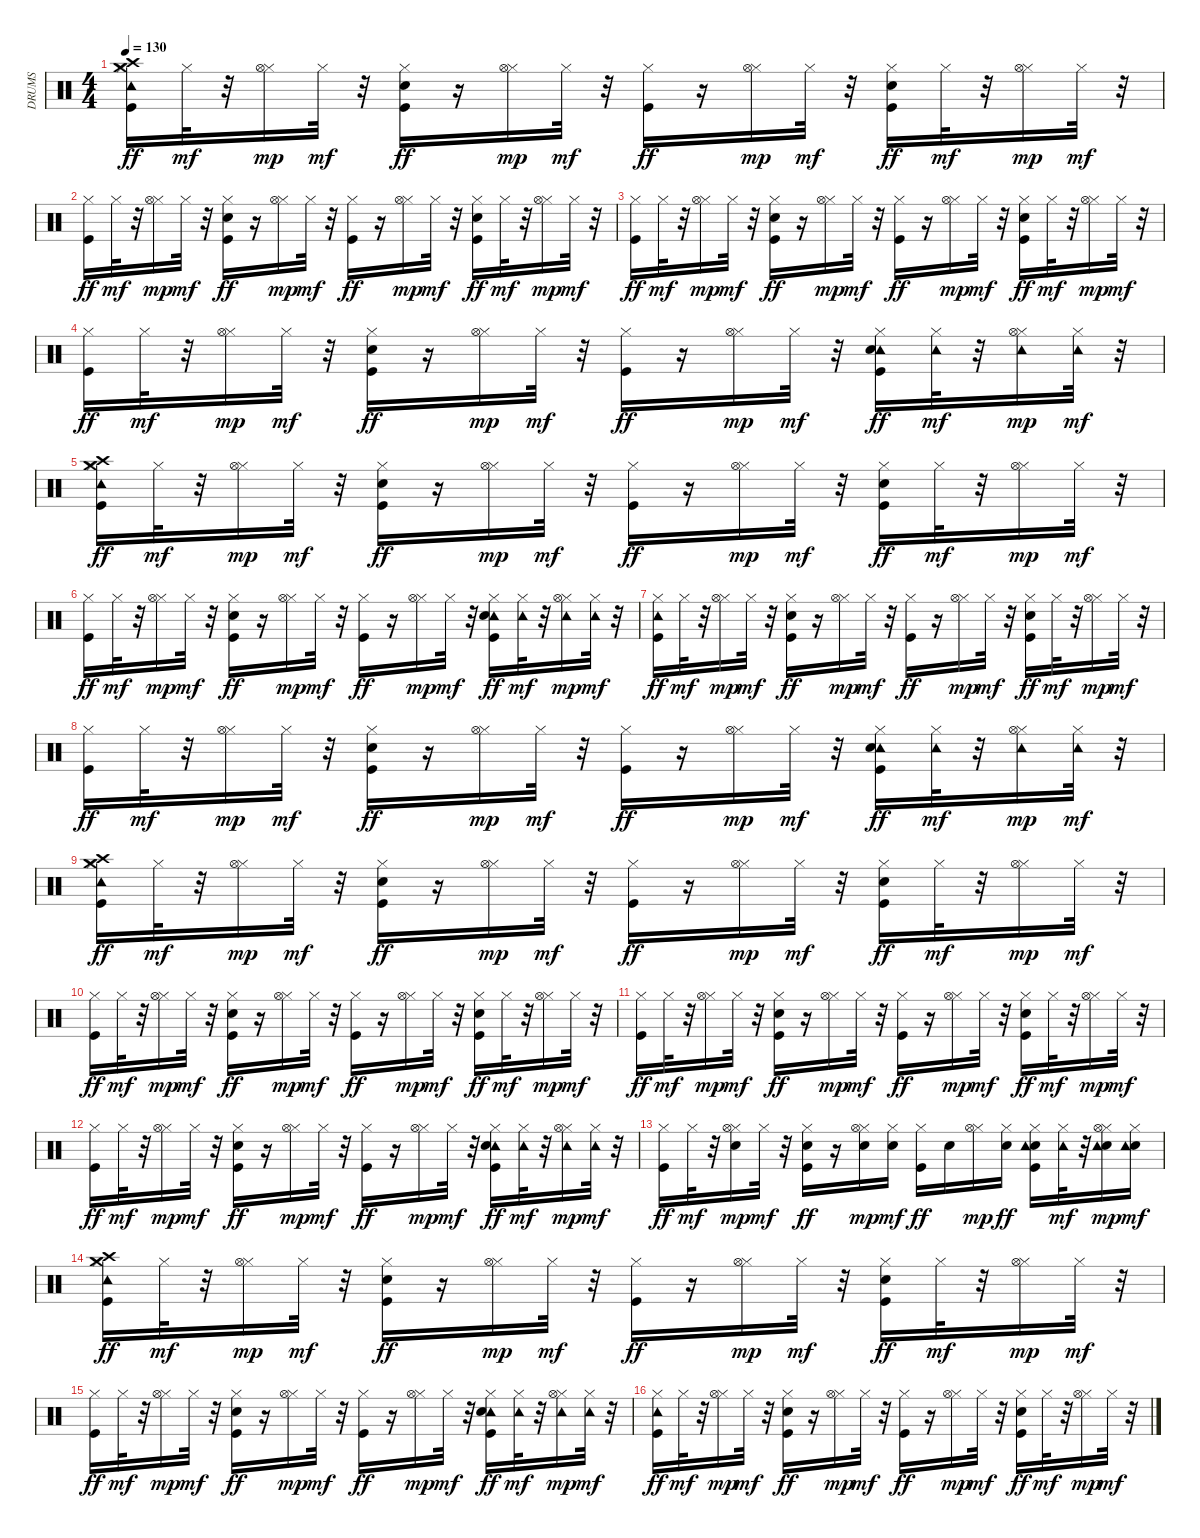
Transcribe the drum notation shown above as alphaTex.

\track ("DRUMS" "DRUMS") {instrument percussion}
\staff {score}
\articulation defaults
\ts (4 4)
\tempo 130
\clef neutral
\ks c
("Hi-Hat (closed)" "Tambourine (hit)" "Crash high (hit)" "Crash medium (hit)" "Kick (hit)").16{dy ff} "Hi-Hat (closed)".32{dy mf} r.32 ("Hi-Hat (closed)" "Hi-Hat (open)").16{dy mp} "Hi-Hat (closed)".32{dy mf} r.32 ("Hi-Hat (closed)" "Electric Snare (hit)" "Kick (hit)").16{dy ff} r.16 ("Hi-Hat (closed)" "Hi-Hat (open)").16{dy mp} "Hi-Hat (closed)".32{dy mf} r.32 ("Hi-Hat (closed)" "Kick (hit)").16{dy ff} r.16 ("Hi-Hat (closed)" "Hi-Hat (open)").16{dy mp} "Hi-Hat (closed)".32{dy mf} r.32 ("Hi-Hat (closed)" "Electric Snare (hit)" "Kick (hit)").16{dy ff} "Hi-Hat (closed)".32{dy mf} r.32 ("Hi-Hat (closed)" "Hi-Hat (open)").16{dy mp} "Hi-Hat (closed)".32{dy mf} r.32 |
("Hi-Hat (closed)" "Kick (hit)").16{dy ff} "Hi-Hat (closed)".32{dy mf} r.32 ("Hi-Hat (closed)" "Hi-Hat (open)").16{dy mp} "Hi-Hat (closed)".32{dy mf} r.32 ("Hi-Hat (closed)" "Electric Snare (hit)" "Kick (hit)").16{dy ff} r.16 ("Hi-Hat (closed)" "Hi-Hat (open)").16{dy mp} "Hi-Hat (closed)".32{dy mf} r.32 ("Hi-Hat (closed)" "Kick (hit)").16{dy ff} r.16 ("Hi-Hat (closed)" "Hi-Hat (open)").16{dy mp} "Hi-Hat (closed)".32{dy mf} r.32 ("Hi-Hat (closed)" "Electric Snare (hit)" "Kick (hit)").16{dy ff} "Hi-Hat (closed)".32{dy mf} r.32 ("Hi-Hat (closed)" "Hi-Hat (open)").16{dy mp} "Hi-Hat (closed)".32{dy mf} r.32 |
("Hi-Hat (closed)" "Kick (hit)").16{dy ff} "Hi-Hat (closed)".32{dy mf} r.32 ("Hi-Hat (closed)" "Hi-Hat (open)").16{dy mp} "Hi-Hat (closed)".32{dy mf} r.32 ("Hi-Hat (closed)" "Electric Snare (hit)" "Kick (hit)").16{dy ff} r.16 ("Hi-Hat (closed)" "Hi-Hat (open)").16{dy mp} "Hi-Hat (closed)".32{dy mf} r.32 ("Hi-Hat (closed)" "Kick (hit)").16{dy ff} r.16 ("Hi-Hat (closed)" "Hi-Hat (open)").16{dy mp} "Hi-Hat (closed)".32{dy mf} r.32 ("Hi-Hat (closed)" "Electric Snare (hit)" "Kick (hit)").16{dy ff} "Hi-Hat (closed)".32{dy mf} r.32 ("Hi-Hat (closed)" "Hi-Hat (open)").16{dy mp} "Hi-Hat (closed)".32{dy mf} r.32 |
("Hi-Hat (closed)" "Kick (hit)").16{dy ff} "Hi-Hat (closed)".32{dy mf} r.32 ("Hi-Hat (closed)" "Hi-Hat (open)").16{dy mp} "Hi-Hat (closed)".32{dy mf} r.32 ("Hi-Hat (closed)" "Electric Snare (hit)" "Kick (hit)").16{dy ff} r.16 ("Hi-Hat (closed)" "Hi-Hat (open)").16{dy mp} "Hi-Hat (closed)".32{dy mf} r.32 ("Hi-Hat (closed)" "Kick (hit)").16{dy ff} r.16 ("Hi-Hat (closed)" "Hi-Hat (open)").16{dy mp} "Hi-Hat (closed)".32{dy mf} r.32 ("Hi-Hat (closed)" "Tambourine (hit)" "Electric Snare (hit)" "Kick (hit)").16{dy ff} ("Hi-Hat (closed)" "Tambourine (hit)").32{dy mf} r.32 ("Hi-Hat (closed)" "Tambourine (hit)" "Hi-Hat (open)").16{dy mp} ("Hi-Hat (closed)" "Tambourine (hit)").32{dy mf} r.32 |
("Hi-Hat (closed)" "Tambourine (hit)" "Crash high (hit)" "Crash medium (hit)" "Kick (hit)").16{dy ff} "Hi-Hat (closed)".32{dy mf} r.32 ("Hi-Hat (closed)" "Hi-Hat (open)").16{dy mp} "Hi-Hat (closed)".32{dy mf} r.32 ("Hi-Hat (closed)" "Electric Snare (hit)" "Kick (hit)").16{dy ff} r.16 ("Hi-Hat (closed)" "Hi-Hat (open)").16{dy mp} "Hi-Hat (closed)".32{dy mf} r.32 ("Hi-Hat (closed)" "Kick (hit)").16{dy ff} r.16 ("Hi-Hat (closed)" "Hi-Hat (open)").16{dy mp} "Hi-Hat (closed)".32{dy mf} r.32 ("Hi-Hat (closed)" "Electric Snare (hit)" "Kick (hit)").16{dy ff} "Hi-Hat (closed)".32{dy mf} r.32 ("Hi-Hat (closed)" "Hi-Hat (open)").16{dy mp} "Hi-Hat (closed)".32{dy mf} r.32 |
("Hi-Hat (closed)" "Kick (hit)").16{dy ff} "Hi-Hat (closed)".32{dy mf} r.32 ("Hi-Hat (closed)" "Hi-Hat (open)").16{dy mp} "Hi-Hat (closed)".32{dy mf} r.32 ("Hi-Hat (closed)" "Electric Snare (hit)" "Kick (hit)").16{dy ff} r.16 ("Hi-Hat (closed)" "Hi-Hat (open)").16{dy mp} "Hi-Hat (closed)".32{dy mf} r.32 ("Hi-Hat (closed)" "Kick (hit)").16{dy ff} r.16 ("Hi-Hat (closed)" "Hi-Hat (open)").16{dy mp} "Hi-Hat (closed)".32{dy mf} r.32 ("Hi-Hat (closed)" "Tambourine (hit)" "Electric Snare (hit)" "Kick (hit)").16{dy ff} ("Hi-Hat (closed)" "Tambourine (hit)").32{dy mf} r.32 ("Hi-Hat (closed)" "Tambourine (hit)" "Hi-Hat (open)").16{dy mp} ("Hi-Hat (closed)" "Tambourine (hit)").32{dy mf} r.32 |
("Hi-Hat (closed)" "Tambourine (hit)" "Kick (hit)").16{dy ff} "Hi-Hat (closed)".32{dy mf} r.32 ("Hi-Hat (closed)" "Hi-Hat (open)").16{dy mp} "Hi-Hat (closed)".32{dy mf} r.32 ("Hi-Hat (closed)" "Electric Snare (hit)" "Kick (hit)").16{dy ff} r.16 ("Hi-Hat (closed)" "Hi-Hat (open)").16{dy mp} "Hi-Hat (closed)".32{dy mf} r.32 ("Hi-Hat (closed)" "Kick (hit)").16{dy ff} r.16 ("Hi-Hat (closed)" "Hi-Hat (open)").16{dy mp} "Hi-Hat (closed)".32{dy mf} r.32 ("Hi-Hat (closed)" "Electric Snare (hit)" "Kick (hit)").16{dy ff} "Hi-Hat (closed)".32{dy mf} r.32 ("Hi-Hat (closed)" "Hi-Hat (open)").16{dy mp} "Hi-Hat (closed)".32{dy mf} r.32 |
("Hi-Hat (closed)" "Kick (hit)").16{dy ff} "Hi-Hat (closed)".32{dy mf} r.32 ("Hi-Hat (closed)" "Hi-Hat (open)").16{dy mp} "Hi-Hat (closed)".32{dy mf} r.32 ("Hi-Hat (closed)" "Electric Snare (hit)" "Kick (hit)").16{dy ff} r.16 ("Hi-Hat (closed)" "Hi-Hat (open)").16{dy mp} "Hi-Hat (closed)".32{dy mf} r.32 ("Hi-Hat (closed)" "Kick (hit)").16{dy ff} r.16 ("Hi-Hat (closed)" "Hi-Hat (open)").16{dy mp} "Hi-Hat (closed)".32{dy mf} r.32 ("Hi-Hat (closed)" "Tambourine (hit)" "Electric Snare (hit)" "Kick (hit)").16{dy ff} ("Hi-Hat (closed)" "Tambourine (hit)").32{dy mf} r.32 ("Hi-Hat (closed)" "Tambourine (hit)" "Hi-Hat (open)").16{dy mp} ("Hi-Hat (closed)" "Tambourine (hit)").32{dy mf} r.32 |
("Hi-Hat (closed)" "Tambourine (hit)" "Crash high (hit)" "Crash medium (hit)" "Kick (hit)").16{dy ff} "Hi-Hat (closed)".32{dy mf} r.32 ("Hi-Hat (closed)" "Hi-Hat (open)").16{dy mp} "Hi-Hat (closed)".32{dy mf} r.32 ("Hi-Hat (closed)" "Electric Snare (hit)" "Kick (hit)").16{dy ff} r.16 ("Hi-Hat (closed)" "Hi-Hat (open)").16{dy mp} "Hi-Hat (closed)".32{dy mf} r.32 ("Hi-Hat (closed)" "Kick (hit)").16{dy ff} r.16 ("Hi-Hat (closed)" "Hi-Hat (open)").16{dy mp} "Hi-Hat (closed)".32{dy mf} r.32 ("Hi-Hat (closed)" "Electric Snare (hit)" "Kick (hit)").16{dy ff} "Hi-Hat (closed)".32{dy mf} r.32 ("Hi-Hat (closed)" "Hi-Hat (open)").16{dy mp} "Hi-Hat (closed)".32{dy mf} r.32 |
("Hi-Hat (closed)" "Kick (hit)").16{dy ff} "Hi-Hat (closed)".32{dy mf} r.32 ("Hi-Hat (closed)" "Hi-Hat (open)").16{dy mp} "Hi-Hat (closed)".32{dy mf} r.32 ("Hi-Hat (closed)" "Electric Snare (hit)" "Kick (hit)").16{dy ff} r.16 ("Hi-Hat (closed)" "Hi-Hat (open)").16{dy mp} "Hi-Hat (closed)".32{dy mf} r.32 ("Hi-Hat (closed)" "Kick (hit)").16{dy ff} r.16 ("Hi-Hat (closed)" "Hi-Hat (open)").16{dy mp} "Hi-Hat (closed)".32{dy mf} r.32 ("Hi-Hat (closed)" "Electric Snare (hit)" "Kick (hit)").16{dy ff} "Hi-Hat (closed)".32{dy mf} r.32 ("Hi-Hat (closed)" "Hi-Hat (open)").16{dy mp} "Hi-Hat (closed)".32{dy mf} r.32 |
("Hi-Hat (closed)" "Kick (hit)").16{dy ff} "Hi-Hat (closed)".32{dy mf} r.32 ("Hi-Hat (closed)" "Hi-Hat (open)").16{dy mp} "Hi-Hat (closed)".32{dy mf} r.32 ("Hi-Hat (closed)" "Electric Snare (hit)" "Kick (hit)").16{dy ff} r.16 ("Hi-Hat (closed)" "Hi-Hat (open)").16{dy mp} "Hi-Hat (closed)".32{dy mf} r.32 ("Hi-Hat (closed)" "Kick (hit)").16{dy ff} r.16 ("Hi-Hat (closed)" "Hi-Hat (open)").16{dy mp} "Hi-Hat (closed)".32{dy mf} r.32 ("Hi-Hat (closed)" "Electric Snare (hit)" "Kick (hit)").16{dy ff} "Hi-Hat (closed)".32{dy mf} r.32 ("Hi-Hat (closed)" "Hi-Hat (open)").16{dy mp} "Hi-Hat (closed)".32{dy mf} r.32 |
("Hi-Hat (closed)" "Kick (hit)").16{dy ff} "Hi-Hat (closed)".32{dy mf} r.32 ("Hi-Hat (closed)" "Hi-Hat (open)").16{dy mp} "Hi-Hat (closed)".32{dy mf} r.32 ("Hi-Hat (closed)" "Electric Snare (hit)" "Kick (hit)").16{dy ff} r.16 ("Hi-Hat (closed)" "Hi-Hat (open)").16{dy mp} "Hi-Hat (closed)".32{dy mf} r.32 ("Hi-Hat (closed)" "Kick (hit)").16{dy ff} r.16 ("Hi-Hat (closed)" "Hi-Hat (open)").16{dy mp} "Hi-Hat (closed)".32{dy mf} r.32 ("Hi-Hat (closed)" "Tambourine (hit)" "Electric Snare (hit)" "Kick (hit)").16{dy ff} ("Hi-Hat (closed)" "Tambourine (hit)").32{dy mf} r.32 ("Hi-Hat (closed)" "Tambourine (hit)" "Hi-Hat (open)").16{dy mp} ("Hi-Hat (closed)" "Tambourine (hit)").32{dy mf} r.32 |
("Hi-Hat (closed)" "Kick (hit)").16{dy ff} "Hi-Hat (closed)".32{dy mf} r.32 ("Electric Snare (hit)" "Hi-Hat (closed)" "Hi-Hat (open)").16{dy mp} "Hi-Hat (closed)".32{dy mf} r.32 ("Hi-Hat (closed)" "Electric Snare (hit)" "Kick (hit)").16{dy ff} r.16 ("Electric Snare (hit)" "Hi-Hat (closed)" "Hi-Hat (open)").16{dy mp} ("Electric Snare (hit)" "Hi-Hat (closed)").16{dy mf} ("Hi-Hat (closed)" "Kick (hit)").16{dy ff} "Electric Snare (hit)".16 ("Hi-Hat (closed)" "Hi-Hat (open)").16{dy mp} ("Hi-Hat (closed)" "Electric Snare (hit)").16{dy ff} ("Hi-Hat (closed)" "Electric Snare (hit)" "Tambourine (hit)" "Kick (hit)").16 ("Hi-Hat (closed)" "Tambourine (hit)").32{dy mf} r.32 ("Hi-Hat (closed)" "Electric Snare (hit)" "Tambourine (hit)" "Hi-Hat (open)").16{dy mp} ("Hi-Hat (closed)" "Electric Snare (hit)" "Tambourine (hit)").16{dy mf} |
("Hi-Hat (closed)" "Tambourine (hit)" "Crash high (hit)" "Crash medium (hit)" "Kick (hit)").16{dy ff} "Hi-Hat (closed)".32{dy mf} r.32 ("Hi-Hat (closed)" "Hi-Hat (open)").16{dy mp} "Hi-Hat (closed)".32{dy mf} r.32 ("Hi-Hat (closed)" "Electric Snare (hit)" "Kick (hit)").16{dy ff} r.16 ("Hi-Hat (closed)" "Hi-Hat (open)").16{dy mp} "Hi-Hat (closed)".32{dy mf} r.32 ("Hi-Hat (closed)" "Kick (hit)").16{dy ff} r.16 ("Hi-Hat (closed)" "Hi-Hat (open)").16{dy mp} "Hi-Hat (closed)".32{dy mf} r.32 ("Hi-Hat (closed)" "Electric Snare (hit)" "Kick (hit)").16{dy ff} "Hi-Hat (closed)".32{dy mf} r.32 ("Hi-Hat (closed)" "Hi-Hat (open)").16{dy mp} "Hi-Hat (closed)".32{dy mf} r.32 |
("Hi-Hat (closed)" "Kick (hit)").16{dy ff} "Hi-Hat (closed)".32{dy mf} r.32 ("Hi-Hat (closed)" "Hi-Hat (open)").16{dy mp} "Hi-Hat (closed)".32{dy mf} r.32 ("Hi-Hat (closed)" "Electric Snare (hit)" "Kick (hit)").16{dy ff} r.16 ("Hi-Hat (closed)" "Hi-Hat (open)").16{dy mp} "Hi-Hat (closed)".32{dy mf} r.32 ("Hi-Hat (closed)" "Kick (hit)").16{dy ff} r.16 ("Hi-Hat (closed)" "Hi-Hat (open)").16{dy mp} "Hi-Hat (closed)".32{dy mf} r.32 ("Hi-Hat (closed)" "Tambourine (hit)" "Electric Snare (hit)" "Kick (hit)").16{dy ff} ("Hi-Hat (closed)" "Tambourine (hit)").32{dy mf} r.32 ("Hi-Hat (closed)" "Tambourine (hit)" "Hi-Hat (open)").16{dy mp} ("Hi-Hat (closed)" "Tambourine (hit)").32{dy mf} r.32 |
("Hi-Hat (closed)" "Tambourine (hit)" "Kick (hit)").16{dy ff} "Hi-Hat (closed)".32{dy mf} r.32 ("Hi-Hat (closed)" "Hi-Hat (open)").16{dy mp} "Hi-Hat (closed)".32{dy mf} r.32 ("Hi-Hat (closed)" "Electric Snare (hit)" "Kick (hit)").16{dy ff} r.16 ("Hi-Hat (closed)" "Hi-Hat (open)").16{dy mp} "Hi-Hat (closed)".32{dy mf} r.32 ("Hi-Hat (closed)" "Kick (hit)").16{dy ff} r.16 ("Hi-Hat (closed)" "Hi-Hat (open)").16{dy mp} "Hi-Hat (closed)".32{dy mf} r.32 ("Hi-Hat (closed)" "Electric Snare (hit)" "Kick (hit)").16{dy ff} "Hi-Hat (closed)".32{dy mf} r.32 ("Hi-Hat (closed)" "Hi-Hat (open)").16{dy mp} "Hi-Hat (closed)".32{dy mf} r.32
